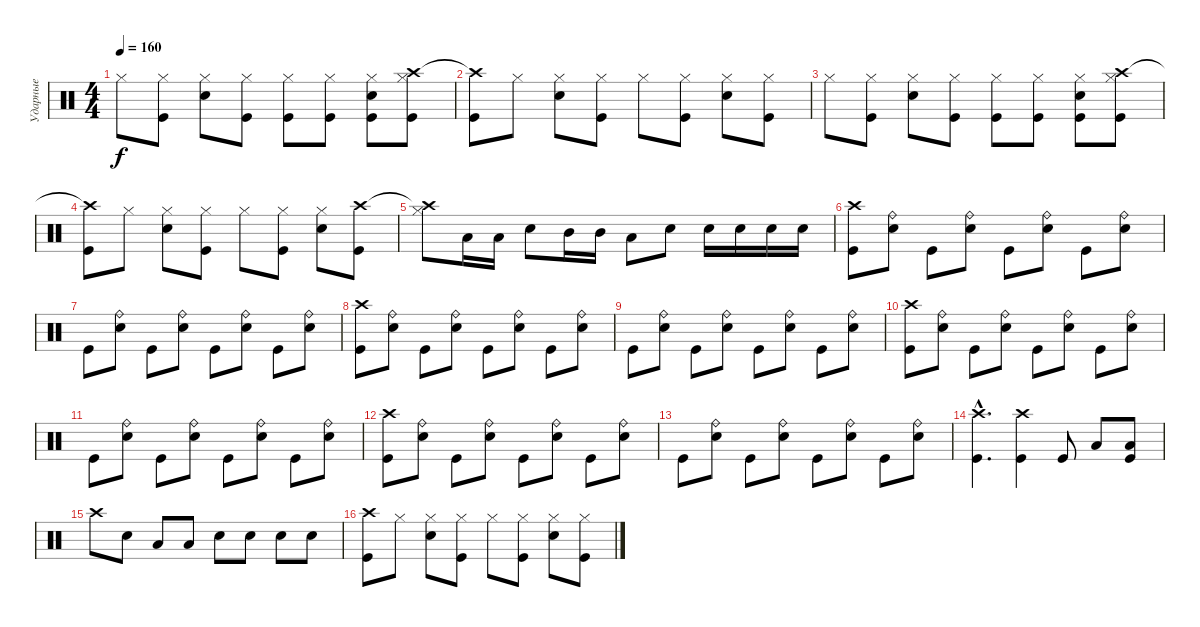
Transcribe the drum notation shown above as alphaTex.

\track ("Ударные" "Ударные") {instrument percussion}
\staff {score}
\articulation defaults
\ts (4 4)
\tempo 160
\clef neutral
\ks c "Hi-Hat (closed)".8{dy f}
("Hi-Hat (closed)" "Kick (hit)").8 ("Hi-Hat (closed)" "Electric Snare (hit)").8 ("Hi-Hat (closed)" "Kick (hit)").8 ("Hi-Hat (closed)" "Kick (hit)").8 ("Hi-Hat (closed)" "Kick (hit)").8 ("Hi-Hat (closed)" "Electric Snare (hit)" "Kick (hit)").8 ("Crash high (hit)" "Hi-Hat (closed)" "Kick (hit)").8 |
("Crash high (hit)"{t} "Kick (hit)").8 "Hi-Hat (closed)".8 ("Hi-Hat (closed)" "Electric Snare (hit)").8 ("Hi-Hat (closed)" "Kick (hit)").8 "Hi-Hat (closed)".8 ("Hi-Hat (closed)" "Kick (hit)").8 ("Hi-Hat (closed)" "Electric Snare (hit)").8 ("Hi-Hat (closed)" "Kick (hit)").8 |
"Hi-Hat (closed)".8 ("Hi-Hat (closed)" "Kick (hit)").8 ("Hi-Hat (closed)" "Electric Snare (hit)").8 ("Hi-Hat (closed)" "Kick (hit)").8 ("Hi-Hat (closed)" "Kick (hit)").8 ("Hi-Hat (closed)" "Kick (hit)").8 ("Hi-Hat (closed)" "Electric Snare (hit)" "Kick (hit)").8 ("Crash high (hit)" "Hi-Hat (closed)" "Kick (hit)").8 |
("Crash high (hit)"{t} "Kick (hit)").8 "Hi-Hat (closed)".8 ("Hi-Hat (closed)" "Electric Snare (hit)").8 ("Hi-Hat (closed)" "Kick (hit)").8 "Hi-Hat (closed)".8 ("Hi-Hat (closed)" "Kick (hit)").8 ("Hi-Hat (closed)" "Electric Snare (hit)").8 ("Crash high (hit)" "Kick (hit)").8 |
("Crash high (hit)"{t} "Hi-Hat (closed)").8 "Low Tom (hit)".16 "Low Tom (hit)".16 "Electric Snare (hit)".8 "Mid Tom (hit)".16 "Mid Tom (hit)".16 "Low Tom (hit)".8 "Electric Snare (hit)".8 "Electric Snare (hit)".16 "Electric Snare (hit)".16 "Electric Snare (hit)".16 "Electric Snare (hit)".16 |
("Crash high (hit)" "Kick (hit)").8 ("Ride (bell)" "Electric Snare (hit)").8 "Kick (hit)".8 ("Ride (bell)" "Electric Snare (hit)").8 "Kick (hit)".8 ("Ride (bell)" "Electric Snare (hit)").8 "Kick (hit)".8 ("Ride (bell)" "Electric Snare (hit)").8 |
"Kick (hit)".8 ("Ride (bell)" "Electric Snare (hit)").8 "Kick (hit)".8 ("Ride (bell)" "Electric Snare (hit)").8 "Kick (hit)".8 ("Ride (bell)" "Electric Snare (hit)").8 "Kick (hit)".8 ("Ride (bell)" "Electric Snare (hit)").8 |
("Crash high (hit)" "Kick (hit)").8 ("Ride (bell)" "Electric Snare (hit)").8 "Kick (hit)".8 ("Ride (bell)" "Electric Snare (hit)").8 "Kick (hit)".8 ("Ride (bell)" "Electric Snare (hit)").8 "Kick (hit)".8 ("Ride (bell)" "Electric Snare (hit)").8 |
"Kick (hit)".8 ("Ride (bell)" "Electric Snare (hit)").8 "Kick (hit)".8 ("Ride (bell)" "Electric Snare (hit)").8 "Kick (hit)".8 ("Ride (bell)" "Electric Snare (hit)").8 "Kick (hit)".8 ("Ride (bell)" "Electric Snare (hit)").8 |
("Crash high (hit)" "Kick (hit)").8 ("Ride (bell)" "Electric Snare (hit)").8 "Kick (hit)".8 ("Ride (bell)" "Electric Snare (hit)").8 "Kick (hit)".8 ("Ride (bell)" "Electric Snare (hit)").8 "Kick (hit)".8 ("Ride (bell)" "Electric Snare (hit)").8 |
"Kick (hit)".8 ("Ride (bell)" "Electric Snare (hit)").8 "Kick (hit)".8 ("Ride (bell)" "Electric Snare (hit)").8 "Kick (hit)".8 ("Ride (bell)" "Electric Snare (hit)").8 "Kick (hit)".8 ("Ride (bell)" "Electric Snare (hit)").8 |
("Crash high (hit)" "Kick (hit)").8 ("Ride (bell)" "Electric Snare (hit)").8 "Kick (hit)".8 ("Ride (bell)" "Electric Snare (hit)").8 "Kick (hit)".8 ("Ride (bell)" "Electric Snare (hit)").8 "Kick (hit)".8 ("Ride (bell)" "Electric Snare (hit)").8 |
"Kick (hit)".8 ("Ride (bell)" "Electric Snare (hit)").8 "Kick (hit)".8 ("Ride (bell)" "Electric Snare (hit)").8 "Kick (hit)".8 ("Ride (bell)" "Electric Snare (hit)").8 "Kick (hit)".8 ("Ride (bell)" "Electric Snare (hit)").8 |
("Crash high (hit)"{hac} "Kick (hit)"{hac}).4{d} ("Crash high (hit)" "Kick (hit)").4 "Kick (hit)".8 "Low Tom (hit)".8 ("Low Tom (hit)" "Kick (hit)").8 |
"Crash high (hit)".8 "Electric Snare (hit)".8 "Low Tom (hit)".8 "Low Tom (hit)".8 "Electric Snare (hit)".8 "Electric Snare (hit)".8 "Electric Snare (hit)".8 "Electric Snare (hit)".8 |
("Crash high (hit)" "Kick (hit)").8 "Hi-Hat (closed)".8 ("Hi-Hat (closed)" "Electric Snare (hit)").8 ("Hi-Hat (closed)" "Kick (hit)").8 "Hi-Hat (closed)".8 ("Hi-Hat (closed)" "Kick (hit)").8 ("Hi-Hat (closed)" "Electric Snare (hit)").8 ("Hi-Hat (closed)" "Kick (hit)").8
